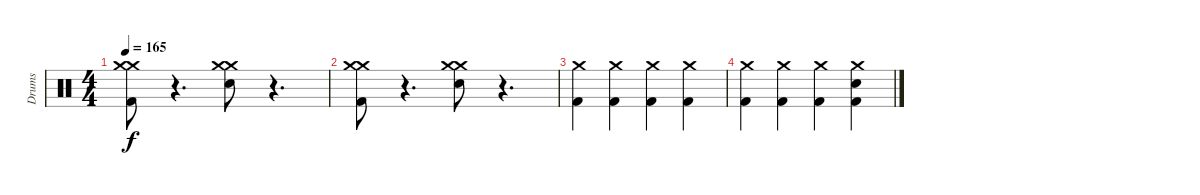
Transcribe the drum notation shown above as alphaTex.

\track ("Drums" "Drums") {instrument percussion}
\staff {score}
\articulation defaults
\ts (4 4)
\tempo 165
\clef neutral
\ks c
("Crash medium (hit)" "Crash medium (hit)" "Kick (hit) 2").8{dy f} r.4{d} ("Crash medium (hit)" "Crash medium (hit)" "Electric Snare (hit)").8 r.4{d} |
("Crash medium (hit)" "Crash medium (hit)" "Kick (hit) 2").8 r.4{d} ("Crash medium (hit)" "Crash medium (hit)" "Electric Snare (hit)").8 r.4{d} |
("Crash medium (hit)" "Kick (hit) 2").4 ("Crash medium (hit)" "Kick (hit) 2").4 ("Crash medium (hit)" "Kick (hit) 2").4 ("Crash medium (hit)" "Kick (hit) 2").4 |
("Crash medium (hit)" "Kick (hit) 2").4 ("Crash medium (hit)" "Kick (hit) 2").4 ("Crash medium (hit)" "Kick (hit) 2").4 ("Crash medium (hit)" "Electric Snare (hit)" "Kick (hit) 2").4
